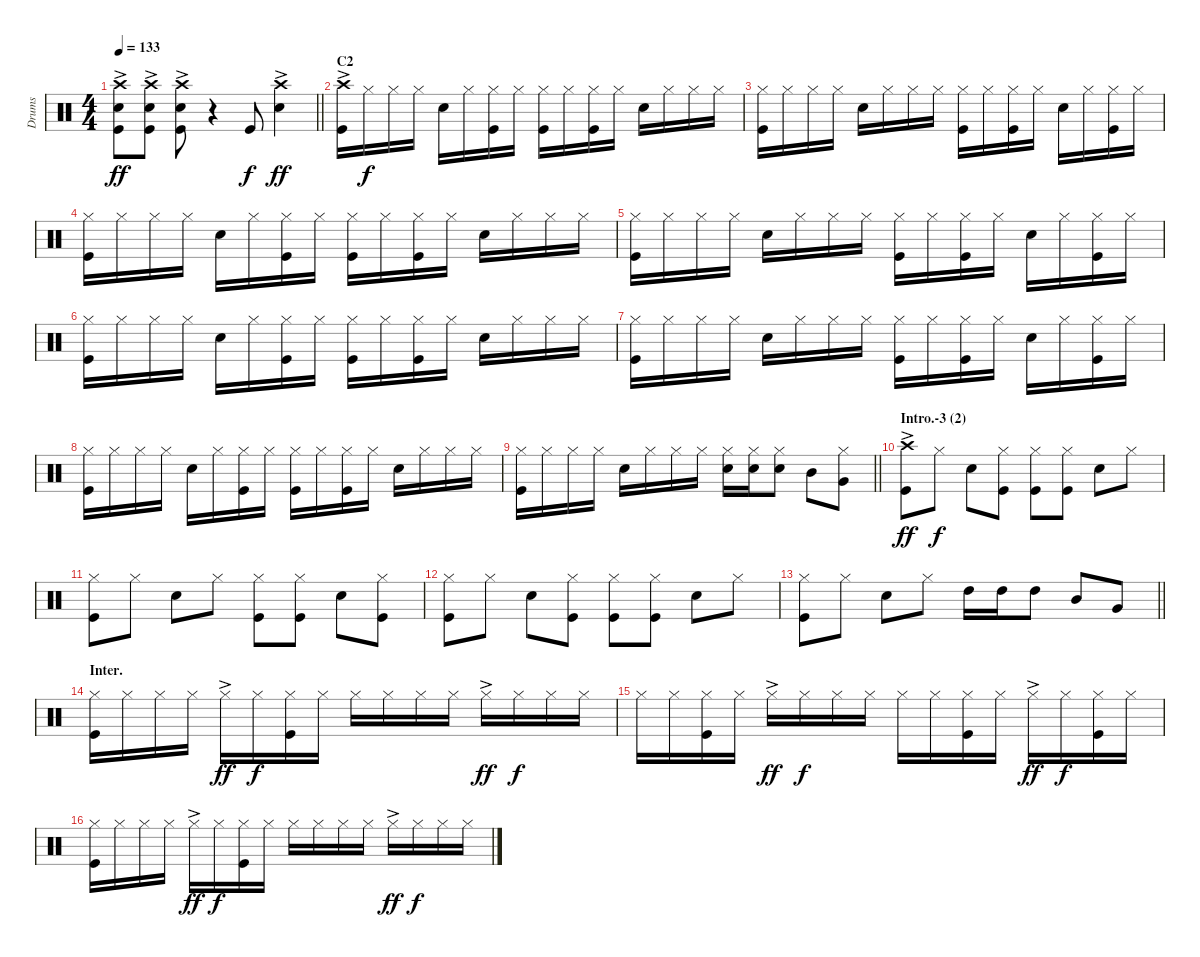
\track ("Drums" "Drums") {instrument percussion}
\staff {score}
\articulation defaults
\ts (4 4)
\tempo 133
\clef neutral
\barLineRight lightlight
\ks c
("Crash high (hit)"{ac} "Snare (hit) 2"{ac} "Kick (hit)"{ac}).8{dy ff} ("Crash high (hit)"{ac} "Snare (hit) 2"{ac} "Kick (hit)"{ac}).8 ("Crash high (hit)"{ac} "Snare (hit) 2"{ac} "Kick (hit)"{ac}).8 r.4 "Kick (hit)".8{dy f} ("Crash high (hit)"{ac} "Snare (hit) 2"{ac}).4{dy ff} |
\section ("" "C2")
("Crash high (hit)"{ac} "Kick (hit)").16 "Hi-Hat (closed)".16{dy f} "Hi-Hat (closed)".16 "Hi-Hat (closed)".16 "Snare (hit) 2".16 "Hi-Hat (closed)".16 ("Hi-Hat (closed)" "Kick (hit)").16 "Hi-Hat (closed)".16 ("Hi-Hat (closed)" "Kick (hit)").16 "Hi-Hat (closed)".16 ("Hi-Hat (closed)" "Kick (hit)").16 "Hi-Hat (closed)".16 "Snare (hit) 2".16 "Hi-Hat (closed)".16 "Hi-Hat (closed)".16 "Hi-Hat (closed)".16 |
("Hi-Hat (closed)" "Kick (hit)").16 "Hi-Hat (closed)".16 "Hi-Hat (closed)".16 "Hi-Hat (closed)".16 "Snare (hit) 2".16 "Hi-Hat (closed)".16 "Hi-Hat (closed)".16 "Hi-Hat (closed)".16 ("Hi-Hat (closed)" "Kick (hit)").16 "Hi-Hat (closed)".16 ("Hi-Hat (closed)" "Kick (hit)").16 "Hi-Hat (closed)".16 "Snare (hit) 2".16 "Hi-Hat (closed)".16 ("Hi-Hat (closed)" "Kick (hit)").16 "Hi-Hat (closed)".16 |
("Hi-Hat (closed)" "Kick (hit)").16 "Hi-Hat (closed)".16 "Hi-Hat (closed)".16 "Hi-Hat (closed)".16 "Snare (hit) 2".16 "Hi-Hat (closed)".16 ("Hi-Hat (closed)" "Kick (hit)").16 "Hi-Hat (closed)".16 ("Kick (hit)" "Hi-Hat (closed)").16 "Hi-Hat (closed)".16 ("Hi-Hat (closed)" "Kick (hit)").16 "Hi-Hat (closed)".16 "Snare (hit) 2".16 "Hi-Hat (closed)".16 "Hi-Hat (closed)".16 "Hi-Hat (closed)".16 |
("Kick (hit)" "Hi-Hat (closed)").16 "Hi-Hat (closed)".16 "Hi-Hat (closed)".16 "Hi-Hat (closed)".16 "Snare (hit) 2".16 "Hi-Hat (closed)".16 "Hi-Hat (closed)".16 "Hi-Hat (closed)".16 ("Hi-Hat (closed)" "Kick (hit)").16 "Hi-Hat (closed)".16 ("Hi-Hat (closed)" "Kick (hit)").16 "Hi-Hat (closed)".16 "Snare (hit) 2".16 "Hi-Hat (closed)".16 ("Hi-Hat (closed)" "Kick (hit)").16 "Hi-Hat (closed)".16 |
("Hi-Hat (closed)" "Kick (hit)").16 "Hi-Hat (closed)".16 "Hi-Hat (closed)".16 "Hi-Hat (closed)".16 "Snare (hit) 2".16 "Hi-Hat (closed)".16 ("Hi-Hat (closed)" "Kick (hit)").16 "Hi-Hat (closed)".16 ("Hi-Hat (closed)" "Kick (hit)").16 "Hi-Hat (closed)".16 ("Hi-Hat (closed)" "Kick (hit)").16 "Hi-Hat (closed)".16 "Snare (hit) 2".16 "Hi-Hat (closed)".16 "Hi-Hat (closed)".16 "Hi-Hat (closed)".16 |
("Kick (hit)" "Hi-Hat (closed)").16 "Hi-Hat (closed)".16 "Hi-Hat (closed)".16 "Hi-Hat (closed)".16 "Snare (hit) 2".16 "Hi-Hat (closed)".16 "Hi-Hat (closed)".16 "Hi-Hat (closed)".16 ("Hi-Hat (closed)" "Kick (hit)").16 "Hi-Hat (closed)".16 ("Hi-Hat (closed)" "Kick (hit)").16 "Hi-Hat (closed)".16 "Snare (hit) 2".16 "Hi-Hat (closed)".16 ("Kick (hit)" "Hi-Hat (closed)").16 "Hi-Hat (closed)".16 |
("Hi-Hat (closed)" "Kick (hit)").16 "Hi-Hat (closed)".16 "Hi-Hat (closed)".16 "Hi-Hat (closed)".16 "Snare (hit) 2".16 "Hi-Hat (closed)".16 ("Hi-Hat (closed)" "Kick (hit)").16 "Hi-Hat (closed)".16 ("Hi-Hat (closed)" "Kick (hit)").16 "Hi-Hat (closed)".16 ("Hi-Hat (closed)" "Kick (hit)").16 "Hi-Hat (closed)".16 "Snare (hit) 2".16 "Hi-Hat (closed)".16 "Hi-Hat (closed)".16 "Hi-Hat (closed)".16 |
\barLineRight lightlight
("Hi-Hat (closed)" "Kick (hit)").16 "Hi-Hat (closed)".16 "Hi-Hat (closed)".16 "Hi-Hat (closed)".16 "Snare (hit) 2".16 "Hi-Hat (closed)".16 "Hi-Hat (closed)".16 "Hi-Hat (closed)".16 ("Hi-Hat (closed)" "Snare (hit) 2").16 ("Hi-Hat (closed)" "Snare (hit) 2").16 ("Hi-Hat (closed)" "Snare (hit) 2").8 "Mid Tom (hit)".8 ("Hi-Hat (closed)" "Very Low Tom (hit)").8 |
\section ("" "Intro.-3 (2)")
("Crash high (hit)"{ac} "Kick (hit)").8{dy ff} "Hi-Hat (closed)".8{dy f} "Snare (hit) 2".8 ("Hi-Hat (closed)" "Kick (hit)").8 ("Hi-Hat (closed)" "Kick (hit)").8 ("Kick (hit)" "Hi-Hat (closed)").8 "Snare (hit) 2".8 "Hi-Hat (closed)".8 |
("Hi-Hat (closed)" "Kick (hit)").8 "Hi-Hat (closed)".8 "Snare (hit) 2".8 "Hi-Hat (closed)".8 ("Hi-Hat (closed)" "Kick (hit)").8 ("Kick (hit)" "Hi-Hat (closed)").8 "Snare (hit) 2".8 ("Hi-Hat (closed)" "Kick (hit)").8 |
("Hi-Hat (closed)" "Kick (hit)").8 "Hi-Hat (closed)".8 "Snare (hit) 2".8 ("Hi-Hat (closed)" "Kick (hit)").8 ("Hi-Hat (closed)" "Kick (hit)").8 ("Kick (hit)" "Hi-Hat (closed)").8 "Snare (hit) 2".8 "Hi-Hat (closed)".8 |
\barLineRight lightlight
("Kick (hit)" "Hi-Hat (closed)").8 "Hi-Hat (closed)".8 "Snare (hit) 2".8 "Hi-Hat (closed)".8 "High Tom (hit)".16 "High Tom (hit)".16 "High Tom (hit)".8 "Mid Tom (hit)".8 "Very Low Tom (hit)".8 |
\section ("" "Inter.")
("Hi-Hat (closed)" "Kick (hit)").16 "Hi-Hat (closed)".16 "Hi-Hat (closed)".16 "Hi-Hat (closed)".16 "Hi-Hat (closed)"{ac}.16{dy ff} "Hi-Hat (closed)".16{dy f} ("Hi-Hat (closed)" "Kick (hit)").16 "Hi-Hat (closed)".16 "Hi-Hat (closed)".16 "Hi-Hat (closed)".16 "Hi-Hat (closed)".16 "Hi-Hat (closed)".16 "Hi-Hat (closed)"{ac}.16{dy ff} "Hi-Hat (closed)".16{dy f} "Hi-Hat (closed)".16 "Hi-Hat (closed)".16 |
"Hi-Hat (closed)".16 "Hi-Hat (closed)".16 ("Hi-Hat (closed)" "Kick (hit)").16 "Hi-Hat (closed)".16 "Hi-Hat (closed)"{ac}.16{dy ff} "Hi-Hat (closed)".16{dy f} "Hi-Hat (closed)".16 "Hi-Hat (closed)".16 "Hi-Hat (closed)".16 "Hi-Hat (closed)".16 ("Hi-Hat (closed)" "Kick (hit)").16 "Hi-Hat (closed)".16 "Hi-Hat (closed)"{ac}.16{dy ff} "Hi-Hat (closed)".16{dy f} ("Hi-Hat (closed)" "Kick (hit)").16 "Hi-Hat (closed)".16 |
("Hi-Hat (closed)" "Kick (hit)").16 "Hi-Hat (closed)".16 "Hi-Hat (closed)".16 "Hi-Hat (closed)".16 "Hi-Hat (closed)"{ac}.16{dy ff} "Hi-Hat (closed)".16{dy f} ("Hi-Hat (closed)" "Kick (hit)").16 "Hi-Hat (closed)".16 "Hi-Hat (closed)".16 "Hi-Hat (closed)".16 "Hi-Hat (closed)".16 "Hi-Hat (closed)".16 "Hi-Hat (closed)"{ac}.16{dy ff} "Hi-Hat (closed)".16{dy f} "Hi-Hat (closed)".16 "Hi-Hat (closed)".16
